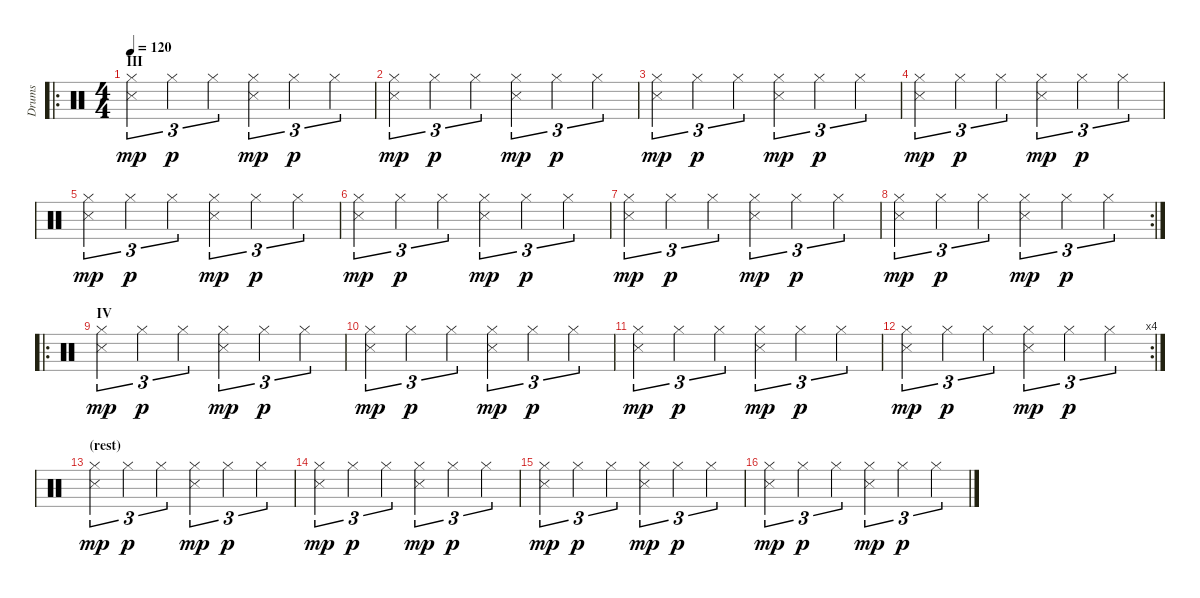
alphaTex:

\track ("Drums" "Drums") {instrument percussion}
\staff {score}
\articulation defaults
\ro
\ts (4 4)
\section ("" "III")
\tempo 120
\clef neutral
\ks c
("Hi-Hat (closed)" "Snare (side stick) 3").4{tu (3 2) dy mp} "Hi-Hat (closed)".4{tu (3 2) dy p} "Hi-Hat (closed)".4{tu (3 2)} ("Hi-Hat (closed)" "Snare (side stick) 3").4{tu (3 2) dy mp} "Hi-Hat (closed)".4{tu (3 2) dy p} "Hi-Hat (closed)".4{tu (3 2)} |
("Hi-Hat (closed)" "Snare (side stick) 3").4{tu (3 2) dy mp} "Hi-Hat (closed)".4{tu (3 2) dy p} "Hi-Hat (closed)".4{tu (3 2)} ("Hi-Hat (closed)" "Snare (side stick) 3").4{tu (3 2) dy mp} "Hi-Hat (closed)".4{tu (3 2) dy p} "Hi-Hat (closed)".4{tu (3 2)} |
("Hi-Hat (closed)" "Snare (side stick) 3").4{tu (3 2) dy mp} "Hi-Hat (closed)".4{tu (3 2) dy p} "Hi-Hat (closed)".4{tu (3 2)} ("Hi-Hat (closed)" "Snare (side stick) 3").4{tu (3 2) dy mp} "Hi-Hat (closed)".4{tu (3 2) dy p} "Hi-Hat (closed)".4{tu (3 2)} |
("Hi-Hat (closed)" "Snare (side stick) 3").4{tu (3 2) dy mp} "Hi-Hat (closed)".4{tu (3 2) dy p} "Hi-Hat (closed)".4{tu (3 2)} ("Hi-Hat (closed)" "Snare (side stick) 3").4{tu (3 2) dy mp} "Hi-Hat (closed)".4{tu (3 2) dy p} "Hi-Hat (closed)".4{tu (3 2)} |
("Hi-Hat (closed)" "Snare (side stick) 3").4{tu (3 2) dy mp} "Hi-Hat (closed)".4{tu (3 2) dy p} "Hi-Hat (closed)".4{tu (3 2)} ("Hi-Hat (closed)" "Snare (side stick) 3").4{tu (3 2) dy mp} "Hi-Hat (closed)".4{tu (3 2) dy p} "Hi-Hat (closed)".4{tu (3 2)} |
("Hi-Hat (closed)" "Snare (side stick) 3").4{tu (3 2) dy mp} "Hi-Hat (closed)".4{tu (3 2) dy p} "Hi-Hat (closed)".4{tu (3 2)} ("Hi-Hat (closed)" "Snare (side stick) 3").4{tu (3 2) dy mp} "Hi-Hat (closed)".4{tu (3 2) dy p} "Hi-Hat (closed)".4{tu (3 2)} |
("Hi-Hat (closed)" "Snare (side stick) 3").4{tu (3 2) dy mp} "Hi-Hat (closed)".4{tu (3 2) dy p} "Hi-Hat (closed)".4{tu (3 2)} ("Hi-Hat (closed)" "Snare (side stick) 3").4{tu (3 2) dy mp} "Hi-Hat (closed)".4{tu (3 2) dy p} "Hi-Hat (closed)".4{tu (3 2)} |
\rc 2
("Hi-Hat (closed)" "Snare (side stick) 3").4{tu (3 2) dy mp} "Hi-Hat (closed)".4{tu (3 2) dy p} "Hi-Hat (closed)".4{tu (3 2)} ("Hi-Hat (closed)" "Snare (side stick) 3").4{tu (3 2) dy mp} "Hi-Hat (closed)".4{tu (3 2) dy p} "Hi-Hat (closed)".4{tu (3 2)} |
\ro
\section ("" "IV")
("Hi-Hat (closed)" "Snare (side stick) 3").4{tu (3 2) dy mp} "Hi-Hat (closed)".4{tu (3 2) dy p} "Hi-Hat (closed)".4{tu (3 2)} ("Hi-Hat (closed)" "Snare (side stick) 3").4{tu (3 2) dy mp} "Hi-Hat (closed)".4{tu (3 2) dy p} "Hi-Hat (closed)".4{tu (3 2)} |
("Hi-Hat (closed)" "Snare (side stick) 3").4{tu (3 2) dy mp} "Hi-Hat (closed)".4{tu (3 2) dy p} "Hi-Hat (closed)".4{tu (3 2)} ("Hi-Hat (closed)" "Snare (side stick) 3").4{tu (3 2) dy mp} "Hi-Hat (closed)".4{tu (3 2) dy p} "Hi-Hat (closed)".4{tu (3 2)} |
("Hi-Hat (closed)" "Snare (side stick) 3").4{tu (3 2) dy mp} "Hi-Hat (closed)".4{tu (3 2) dy p} "Hi-Hat (closed)".4{tu (3 2)} ("Hi-Hat (closed)" "Snare (side stick) 3").4{tu (3 2) dy mp} "Hi-Hat (closed)".4{tu (3 2) dy p} "Hi-Hat (closed)".4{tu (3 2)} |
\rc 4
("Hi-Hat (closed)" "Snare (side stick) 3").4{tu (3 2) dy mp} "Hi-Hat (closed)".4{tu (3 2) dy p} "Hi-Hat (closed)".4{tu (3 2)} ("Hi-Hat (closed)" "Snare (side stick) 3").4{tu (3 2) dy mp} "Hi-Hat (closed)".4{tu (3 2) dy p} "Hi-Hat (closed)".4{tu (3 2)} |
\section ("" "(rest)")
("Hi-Hat (closed)" "Snare (side stick) 3").4{tu (3 2) dy mp} "Hi-Hat (closed)".4{tu (3 2) dy p} "Hi-Hat (closed)".4{tu (3 2)} ("Hi-Hat (closed)" "Snare (side stick) 3").4{tu (3 2) dy mp} "Hi-Hat (closed)".4{tu (3 2) dy p} "Hi-Hat (closed)".4{tu (3 2)} |
("Hi-Hat (closed)" "Snare (side stick) 3").4{tu (3 2) dy mp} "Hi-Hat (closed)".4{tu (3 2) dy p} "Hi-Hat (closed)".4{tu (3 2)} ("Hi-Hat (closed)" "Snare (side stick) 3").4{tu (3 2) dy mp} "Hi-Hat (closed)".4{tu (3 2) dy p} "Hi-Hat (closed)".4{tu (3 2)} |
("Hi-Hat (closed)" "Snare (side stick) 3").4{tu (3 2) dy mp} "Hi-Hat (closed)".4{tu (3 2) dy p} "Hi-Hat (closed)".4{tu (3 2)} ("Hi-Hat (closed)" "Snare (side stick) 3").4{tu (3 2) dy mp} "Hi-Hat (closed)".4{tu (3 2) dy p} "Hi-Hat (closed)".4{tu (3 2)} |
("Hi-Hat (closed)" "Snare (side stick) 3").4{tu (3 2) dy mp} "Hi-Hat (closed)".4{tu (3 2) dy p} "Hi-Hat (closed)".4{tu (3 2)} ("Hi-Hat (closed)" "Snare (side stick) 3").4{tu (3 2) dy mp} "Hi-Hat (closed)".4{tu (3 2) dy p} "Hi-Hat (closed)".4{tu (3 2)}
